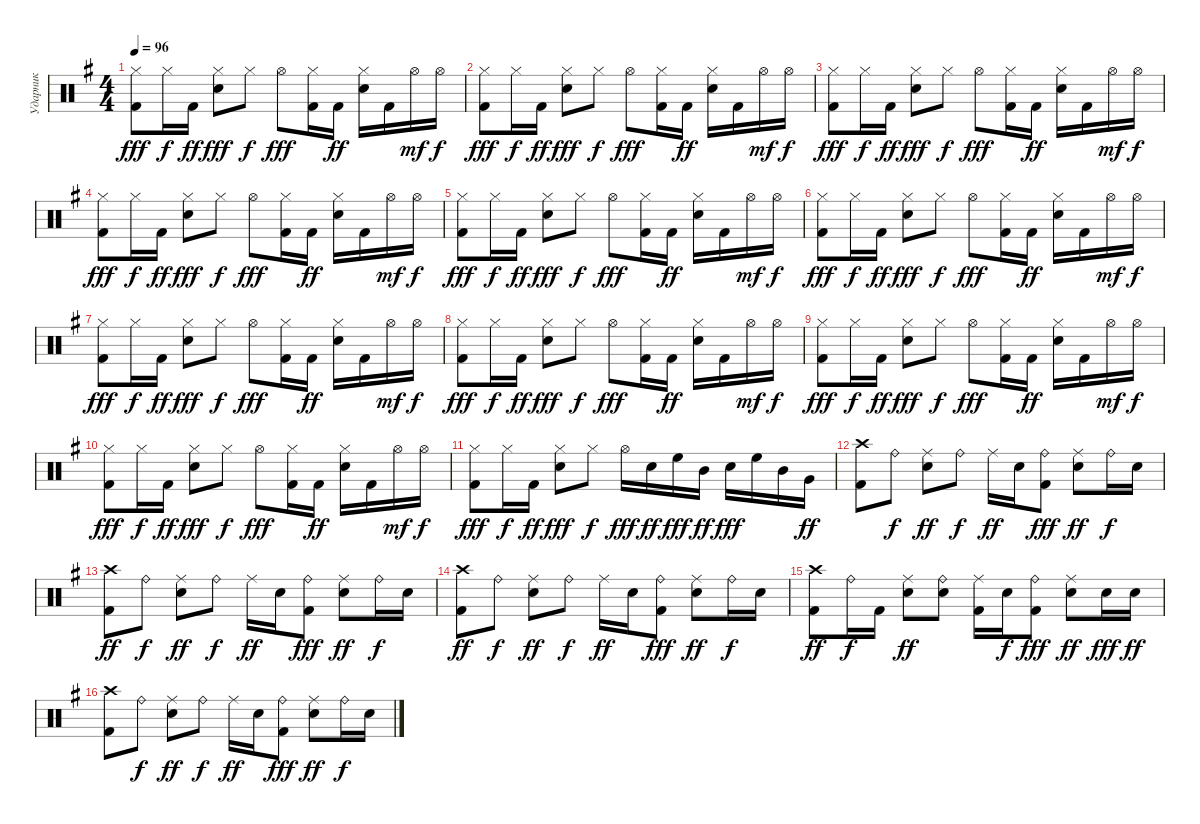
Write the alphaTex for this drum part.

\track ("Ударник" "Ударник") {instrument percussion}
\staff {score}
\articulation defaults
\ts (4 4)
\tempo 96
\clef neutral
\ks eminor
("Kick (hit) 2" "Hi-Hat (closed)").8{dy fff} "Hi-Hat (closed)".16{dy f} "Kick (hit) 2".16{dy ff} ("Snare (hit) 2" "Hi-Hat (closed)").8{dy fff} "Hi-Hat (closed)".8{dy f} "Hi-Hat (open)".8{dy fff} ("Kick (hit) 2" "Hi-Hat (closed)").16 "Kick (hit) 2".16{dy ff} ("Snare (hit) 2" "Hi-Hat (closed)").16 "Kick (hit) 2".16 "Hi-Hat (open)".16{dy mf} "Hi-Hat (open)".16{dy f} |
("Kick (hit) 2" "Hi-Hat (closed)").8{dy fff} "Hi-Hat (closed)".16{dy f} "Kick (hit) 2".16{dy ff} ("Snare (hit) 2" "Hi-Hat (closed)").8{dy fff} "Hi-Hat (closed)".8{dy f} "Hi-Hat (open)".8{dy fff} ("Kick (hit) 2" "Hi-Hat (closed)").16 "Kick (hit) 2".16{dy ff} ("Snare (hit) 2" "Hi-Hat (closed)").16 "Kick (hit) 2".16 "Hi-Hat (open)".16{dy mf} "Hi-Hat (open)".16{dy f} |
("Kick (hit) 2" "Hi-Hat (closed)").8{dy fff} "Hi-Hat (closed)".16{dy f} "Kick (hit) 2".16{dy ff} ("Snare (hit) 2" "Hi-Hat (closed)").8{dy fff} "Hi-Hat (closed)".8{dy f} "Hi-Hat (open)".8{dy fff} ("Kick (hit) 2" "Hi-Hat (closed)").16 "Kick (hit) 2".16{dy ff} ("Snare (hit) 2" "Hi-Hat (closed)").16 "Kick (hit) 2".16 "Hi-Hat (open)".16{dy mf} "Hi-Hat (open)".16{dy f} |
("Kick (hit) 2" "Hi-Hat (closed)").8{dy fff} "Hi-Hat (closed)".16{dy f} "Kick (hit) 2".16{dy ff} ("Snare (hit) 2" "Hi-Hat (closed)").8{dy fff} "Hi-Hat (closed)".8{dy f} "Hi-Hat (open)".8{dy fff} ("Kick (hit) 2" "Hi-Hat (closed)").16 "Kick (hit) 2".16{dy ff} ("Snare (hit) 2" "Hi-Hat (closed)").16 "Kick (hit) 2".16 "Hi-Hat (open)".16{dy mf} "Hi-Hat (open)".16{dy f} |
("Kick (hit) 2" "Hi-Hat (closed)").8{dy fff} "Hi-Hat (closed)".16{dy f} "Kick (hit) 2".16{dy ff} ("Snare (hit) 2" "Hi-Hat (closed)").8{dy fff} "Hi-Hat (closed)".8{dy f} "Hi-Hat (open)".8{dy fff} ("Kick (hit) 2" "Hi-Hat (closed)").16 "Kick (hit) 2".16{dy ff} ("Snare (hit) 2" "Hi-Hat (closed)").16 "Kick (hit) 2".16 "Hi-Hat (open)".16{dy mf} "Hi-Hat (open)".16{dy f} |
("Kick (hit) 2" "Hi-Hat (closed)").8{dy fff} "Hi-Hat (closed)".16{dy f} "Kick (hit) 2".16{dy ff} ("Snare (hit) 2" "Hi-Hat (closed)").8{dy fff} "Hi-Hat (closed)".8{dy f} "Hi-Hat (open)".8{dy fff} ("Kick (hit) 2" "Hi-Hat (closed)").16 "Kick (hit) 2".16{dy ff} ("Snare (hit) 2" "Hi-Hat (closed)").16 "Kick (hit) 2".16 "Hi-Hat (open)".16{dy mf} "Hi-Hat (open)".16{dy f} |
("Kick (hit) 2" "Hi-Hat (closed)").8{dy fff} "Hi-Hat (closed)".16{dy f} "Kick (hit) 2".16{dy ff} ("Snare (hit) 2" "Hi-Hat (closed)").8{dy fff} "Hi-Hat (closed)".8{dy f} "Hi-Hat (open)".8{dy fff} ("Kick (hit) 2" "Hi-Hat (closed)").16 "Kick (hit) 2".16{dy ff} ("Snare (hit) 2" "Hi-Hat (closed)").16 "Kick (hit) 2".16 "Hi-Hat (open)".16{dy mf} "Hi-Hat (open)".16{dy f} |
("Kick (hit) 2" "Hi-Hat (closed)").8{dy fff} "Hi-Hat (closed)".16{dy f} "Kick (hit) 2".16{dy ff} ("Snare (hit) 2" "Hi-Hat (closed)").8{dy fff} "Hi-Hat (closed)".8{dy f} "Hi-Hat (open)".8{dy fff} ("Kick (hit) 2" "Hi-Hat (closed)").16 "Kick (hit) 2".16{dy ff} ("Snare (hit) 2" "Hi-Hat (closed)").16 "Kick (hit) 2".16 "Hi-Hat (open)".16{dy mf} "Hi-Hat (open)".16{dy f} |
("Kick (hit) 2" "Hi-Hat (closed)").8{dy fff} "Hi-Hat (closed)".16{dy f} "Kick (hit) 2".16{dy ff} ("Snare (hit) 2" "Hi-Hat (closed)").8{dy fff} "Hi-Hat (closed)".8{dy f} "Hi-Hat (open)".8{dy fff} ("Kick (hit) 2" "Hi-Hat (closed)").16 "Kick (hit) 2".16{dy ff} ("Snare (hit) 2" "Hi-Hat (closed)").16 "Kick (hit) 2".16 "Hi-Hat (open)".16{dy mf} "Hi-Hat (open)".16{dy f} |
("Kick (hit) 2" "Hi-Hat (closed)").8{dy fff} "Hi-Hat (closed)".16{dy f} "Kick (hit) 2".16{dy ff} ("Snare (hit) 2" "Hi-Hat (closed)").8{dy fff} "Hi-Hat (closed)".8{dy f} "Hi-Hat (open)".8{dy fff} ("Kick (hit) 2" "Hi-Hat (closed)").16 "Kick (hit) 2".16{dy ff} ("Snare (hit) 2" "Hi-Hat (closed)").16 "Kick (hit) 2".16 "Hi-Hat (open)".16{dy mf} "Hi-Hat (open)".16{dy f} |
("Kick (hit) 2" "Hi-Hat (closed)").8{dy fff} "Hi-Hat (closed)".16{dy f} "Kick (hit) 2".16{dy ff} ("Snare (hit) 2" "Hi-Hat (closed)").8{dy fff} "Hi-Hat (closed)".8{dy f} "Hi-Hat (open)".16{dy fff} "Snare (hit) 2".16{dy ff} "High Floor Tom (hit)".16{dy fff} "Mid Tom (hit)".16{dy ff} "Snare (hit) 2".16{dy fff} "High Floor Tom (hit)".16 "Mid Tom (hit)".16 "Very Low Tom (hit)".16{dy ff} |
("Kick (hit) 2" "Crash high (hit)").8 "Ride (bell)".8{dy f} ("Snare (hit) 2" "Ride (middle)").8{dy ff} "Ride (bell)".8{dy f} "Ride (middle)".16{dy ff} "Snare (hit) 2".16 ("Kick (hit) 2" "Ride (bell)").8{dy fff} ("Snare (hit) 2" "Ride (middle)").8{dy ff} "Ride (bell)".16{dy f} "Snare (hit) 2".16 |
("Kick (hit) 2" "Crash high (hit)").8{dy ff} "Ride (bell)".8{dy f} ("Snare (hit) 2" "Ride (middle)").8{dy ff} "Ride (bell)".8{dy f} "Ride (middle)".16{dy ff} "Snare (hit) 2".16 ("Kick (hit) 2" "Ride (bell)").8{dy fff} ("Snare (hit) 2" "Ride (middle)").8{dy ff} "Ride (bell)".16{dy f} "Snare (hit) 2".16 |
("Kick (hit) 2" "Crash high (hit)").8{dy ff} "Ride (bell)".8{dy f} ("Snare (hit) 2" "Ride (middle)").8{dy ff} "Ride (bell)".8{dy f} "Ride (middle)".16{dy ff} "Snare (hit) 2".16 ("Kick (hit) 2" "Ride (bell)").8{dy fff} ("Snare (hit) 2" "Ride (middle)").8{dy ff} "Ride (bell)".16{dy f} "Snare (hit) 2".16 |
("Kick (hit) 2" "Crash high (hit)").8{dy ff} "Ride (bell)".16{dy f} "Kick (hit) 2".16 ("Snare (hit) 2" "Ride (middle)").8{dy ff} ("Snare (hit) 2" "Ride (bell)").8 ("Kick (hit) 2" "Ride (middle)").16 "Snare (hit) 2".16{dy f} ("Kick (hit) 2" "Ride (bell)").8{dy fff} ("Snare (hit) 2" "Ride (middle)").8{dy ff} "Snare (hit) 2".16{dy fff} "Snare (hit) 2".16{dy ff} |
("Kick (hit) 2" "Crash high (hit)").8 "Ride (bell)".8{dy f} ("Snare (hit) 2" "Ride (middle)").8{dy ff} "Ride (bell)".8{dy f} "Ride (middle)".16{dy ff} "Snare (hit) 2".16 ("Kick (hit) 2" "Ride (bell)").8{dy fff} ("Snare (hit) 2" "Ride (middle)").8{dy ff} "Ride (bell)".16{dy f} "Snare (hit) 2".16
